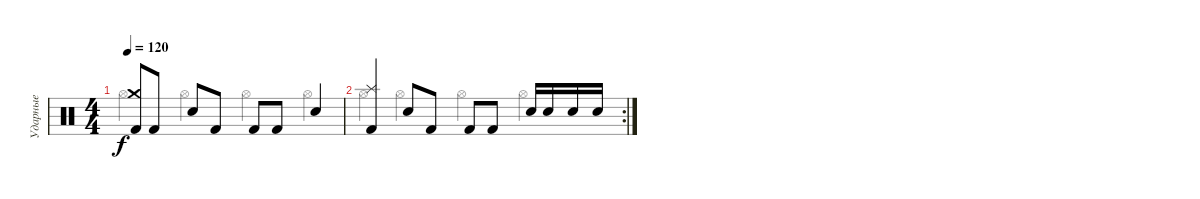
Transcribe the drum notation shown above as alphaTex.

\track ("Ударные" "Ударные") {instrument percussion}
\staff {score}
\articulation defaults
\voice
\ts (4 4)
\tempo 120
\clef neutral
\ks c
("Crash medium (hit)" "Kick (hit) 2").8{dy f} "Kick (hit) 2".8 "Electric Snare (hit)".8 "Kick (hit) 2".8 "Kick (hit) 2".8 "Kick (hit) 2".8 "Electric Snare (hit)".4 |
\rc 2
("Splash (hit)" "Kick (hit) 2").4 "Electric Snare (hit)".8 "Kick (hit) 2".8 "Kick (hit) 2".8 "Kick (hit) 2".8 "Electric Snare (hit)".16 "Electric Snare (hit)".16 "Electric Snare (hit)".16 "Electric Snare (hit)".16 |
|
|
|
|
|
|
|
|
|
|
|
\voice
\clef neutral
\ottava regular
\simile none
\ks c "Hi-Hat (open)".4{dy f} "Hi-Hat (open)".4 "Hi-Hat (open)".4 "Hi-Hat (open)".4
|
"Hi-Hat (open)".4 "Hi-Hat (open)".4 "Hi-Hat (open)".4 "Hi-Hat (open)".4 |
|
|
|
|
|
|
|
|
|
|
|
